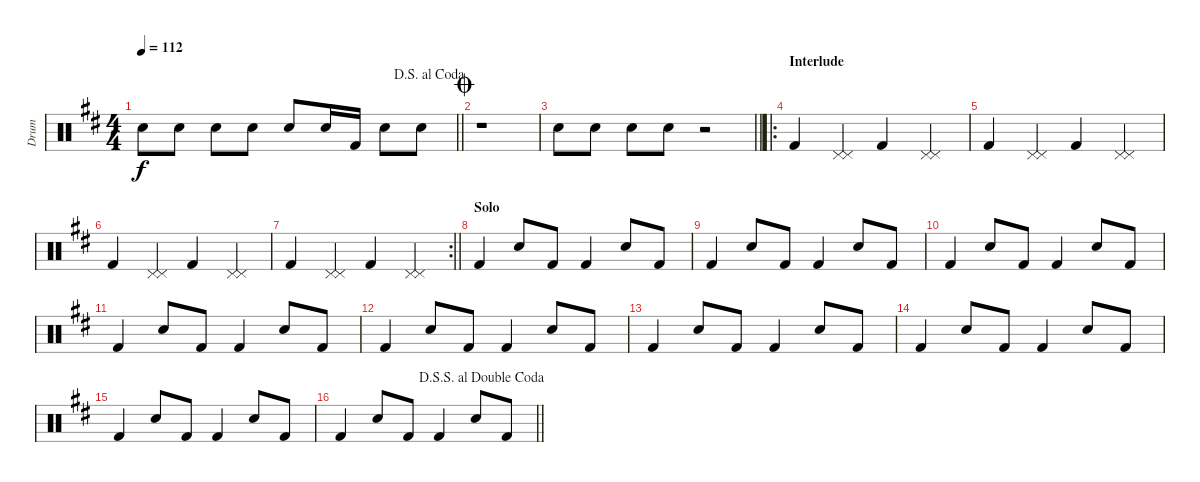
\track ("Drum" "Drum") {instrument percussion}
\staff {score}
\articulation defaults
\ts (4 4)
\jump dalsegnoalcoda
\tempo 112
\clef neutral
\barLineRight lightlight
\ks d "Snare (hit) 2".8{dy f volume 8} "Snare (hit) 2".8{volume 16} "Snare (hit) 2".8 "Snare (hit) 2".8 "Snare (hit) 2".8 "Snare (hit) 2".16 "Kick (hit) 2".16 "Snare (hit) 2".8 "Snare (hit) 2".8
|
\jump coda
r.1 |
\barLineRight lightlight "Electric Snare (hit)".8 "Electric Snare (hit)".8 "Electric Snare (hit)".8 "Electric Snare (hit)".8
r.2 |
\ro
\section ("" "Interlude")
"Kick (hit) 2".4 ("Pedal Hi-Hat (hit)" "Pedal Hi-Hat (hit)").4 "Kick (hit) 2".4 ("Pedal Hi-Hat (hit)" "Pedal Hi-Hat (hit)").4 |
"Kick (hit) 2".4 ("Pedal Hi-Hat (hit)" "Pedal Hi-Hat (hit)").4 "Kick (hit) 2".4 ("Pedal Hi-Hat (hit)" "Pedal Hi-Hat (hit)").4 |
"Kick (hit) 2".4 ("Pedal Hi-Hat (hit)" "Pedal Hi-Hat (hit)").4 "Kick (hit) 2".4 ("Pedal Hi-Hat (hit)" "Pedal Hi-Hat (hit)").4 |
\rc 2
\barLineRight lightlight "Kick (hit) 2".4
("Pedal Hi-Hat (hit)" "Pedal Hi-Hat (hit)").4 "Kick (hit) 2".4 ("Pedal Hi-Hat (hit)" "Pedal Hi-Hat (hit)").4 |
\section ("" "Solo")
"Kick (hit) 2".4 "Snare (hit) 2".8 "Kick (hit) 2".8 "Kick (hit) 2".4 "Snare (hit) 2".8 "Kick (hit) 2".8 |
"Kick (hit) 2".4 "Snare (hit) 2".8 "Kick (hit) 2".8 "Kick (hit) 2".4 "Snare (hit) 2".8 "Kick (hit) 2".8 |
"Kick (hit) 2".4 "Snare (hit) 2".8 "Kick (hit) 2".8 "Kick (hit) 2".4 "Snare (hit) 2".8 "Kick (hit) 2".8 |
"Kick (hit) 2".4 "Snare (hit) 2".8 "Kick (hit) 2".8 "Kick (hit) 2".4 "Snare (hit) 2".8 "Kick (hit) 2".8 |
"Kick (hit) 2".4 "Snare (hit) 2".8 "Kick (hit) 2".8 "Kick (hit) 2".4 "Snare (hit) 2".8 "Kick (hit) 2".8 |
"Kick (hit) 2".4 "Snare (hit) 2".8 "Kick (hit) 2".8 "Kick (hit) 2".4 "Snare (hit) 2".8 "Kick (hit) 2".8 |
"Kick (hit) 2".4 "Snare (hit) 2".8 "Kick (hit) 2".8 "Kick (hit) 2".4 "Snare (hit) 2".8 "Kick (hit) 2".8 |
"Kick (hit) 2".4 "Snare (hit) 2".8 "Kick (hit) 2".8 "Kick (hit) 2".4 "Snare (hit) 2".8 "Kick (hit) 2".8 |
\jump dalsegnosegnoaldoublecoda
\barLineRight lightlight "Kick (hit) 2".4 "Snare (hit) 2".8 "Kick (hit) 2".8 "Kick (hit) 2".4 "Snare (hit) 2".8 "Kick (hit) 2".8
